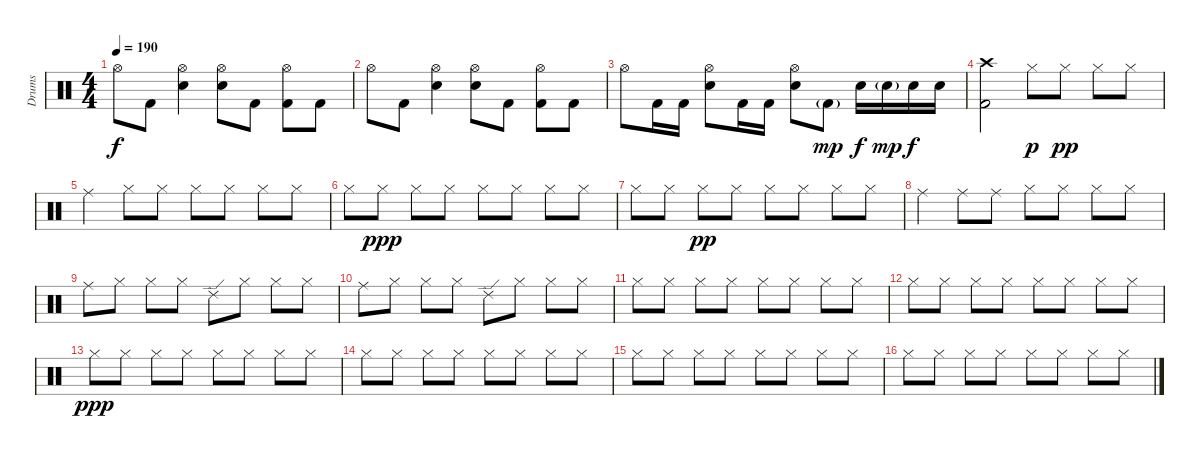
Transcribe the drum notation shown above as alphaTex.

\track ("Drums" "Drums") {instrument percussion}
\staff {score}
\articulation defaults
\ts (4 4)
\tempo 190
\clef neutral
\ks c "Hi-Hat (open)".8{dy f} "Kick (hit) 2".8
("Hi-Hat (open)" "Electric Snare (hit)").4 ("Hi-Hat (open)" "Electric Snare (hit)").8 "Kick (hit) 2".8 ("Hi-Hat (open)" "Kick (hit) 2").8 "Kick (hit) 2".8 |
"Hi-Hat (open)".8 "Kick (hit) 2".8 ("Hi-Hat (open)" "Electric Snare (hit)").4 ("Hi-Hat (open)" "Electric Snare (hit)").8 "Kick (hit) 2".8 ("Hi-Hat (open)" "Kick (hit) 2").8 "Kick (hit) 2".8 |
"Hi-Hat (open)".8 "Kick (hit) 2".16 "Kick (hit) 2".16 ("Hi-Hat (open)" "Electric Snare (hit)").8 "Kick (hit) 2".16 "Kick (hit) 2".16 ("Hi-Hat (open)" "Electric Snare (hit)").8 "Kick (hit) 2"{g}.8{dy mp} "Electric Snare (hit)".16{dy f} "Electric Snare (hit)"{g}.16{dy mp} "Electric Snare (hit)".16{dy f} "Electric Snare (hit)".16 |
("Crash high (hit)" "Kick (hit) 2").2 "Hi-Hat (closed)".8{dy p} "Hi-Hat (closed)".8{dy pp} "Hi-Hat (closed)".8 "Hi-Hat (closed)".8 |
"Ride (middle)".4 "Hi-Hat (closed)".8 "Hi-Hat (closed)".8 "Hi-Hat (closed)".8 "Hi-Hat (closed)".8 "Hi-Hat (closed)".8 "Hi-Hat (closed)".8 |
"Hi-Hat (closed)".8 "Hi-Hat (closed)".8{dy ppp} "Hi-Hat (closed)".8 "Hi-Hat (closed)".8 "Hi-Hat (closed)".8 "Hi-Hat (closed)".8 "Hi-Hat (closed)".8 "Hi-Hat (closed)".8 |
"Hi-Hat (closed)".8 "Hi-Hat (closed)".8 "Hi-Hat (closed)".8{dy pp} "Hi-Hat (closed)".8 "Hi-Hat (closed)".8 "Hi-Hat (closed)".8 "Hi-Hat (closed)".8 "Hi-Hat (closed)".8 |
"Ride (middle)".4 "Ride (middle)".8 "Ride (middle)".8 "Hi-Hat (closed)".8 "Hi-Hat (closed)".8 "Hi-Hat (closed)".8 "Hi-Hat (closed)".8 |
"Ride (middle)".8 "Hi-Hat (closed)".8 "Hi-Hat (closed)".8 "Hi-Hat (closed)".8 "Ride (edge) 2".8 "Hi-Hat (closed)".8 "Hi-Hat (closed)".8 "Hi-Hat (closed)".8 |
"Ride (middle)".8 "Hi-Hat (closed)".8 "Hi-Hat (closed)".8 "Hi-Hat (closed)".8 "Ride (edge) 2".8 "Hi-Hat (closed)".8 "Hi-Hat (closed)".8 "Hi-Hat (closed)".8 |
"Hi-Hat (closed)".8 "Hi-Hat (closed)".8 "Hi-Hat (closed)".8 "Hi-Hat (closed)".8 "Hi-Hat (closed)".8 "Hi-Hat (closed)".8 "Hi-Hat (closed)".8 "Hi-Hat (closed)".8 |
"Hi-Hat (closed)".8 "Hi-Hat (closed)".8 "Hi-Hat (closed)".8 "Hi-Hat (closed)".8 "Hi-Hat (closed)".8 "Hi-Hat (closed)".8 "Hi-Hat (closed)".8 "Hi-Hat (closed)".8 |
"Hi-Hat (closed)".8{dy ppp} "Hi-Hat (closed)".8 "Hi-Hat (closed)".8 "Hi-Hat (closed)".8 "Hi-Hat (closed)".8 "Hi-Hat (closed)".8 "Hi-Hat (closed)".8 "Hi-Hat (closed)".8 |
"Hi-Hat (closed)".8 "Hi-Hat (closed)".8 "Hi-Hat (closed)".8 "Hi-Hat (closed)".8 "Hi-Hat (closed)".8 "Hi-Hat (closed)".8 "Hi-Hat (closed)".8 "Hi-Hat (closed)".8 |
"Hi-Hat (closed)".8 "Hi-Hat (closed)".8 "Hi-Hat (closed)".8 "Hi-Hat (closed)".8 "Hi-Hat (closed)".8 "Hi-Hat (closed)".8 "Hi-Hat (closed)".8 "Hi-Hat (closed)".8 |
"Hi-Hat (closed)".8 "Hi-Hat (closed)".8 "Hi-Hat (closed)".8 "Hi-Hat (closed)".8 "Hi-Hat (closed)".8 "Hi-Hat (closed)".8 "Hi-Hat (closed)".8 "Hi-Hat (closed)".8
